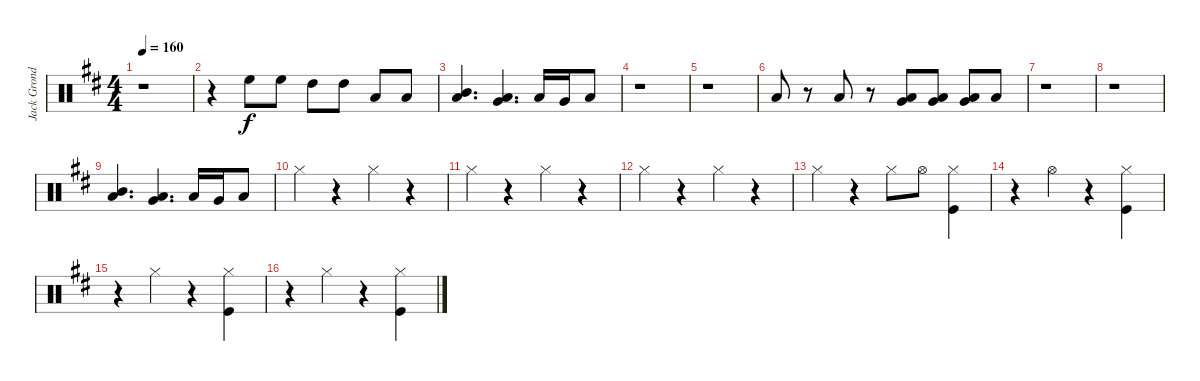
\track ("Jack Grondin Drums" "Jack Grond") {instrument percussion}
\staff {score}
\articulation defaults
\ts (4 4)
\tempo 160
\clef neutral
\ks d
r.1{dy f} |
r.4 "High Floor Tom (hit)".8 "High Floor Tom (hit)".8 "High Tom (hit)".8 "High Tom (hit)".8 "Low Tom (hit)".8 "Low Tom (hit)".8 |
("Mid Tom (hit)" "Low Tom (hit)").4{d} ("Low Tom (hit)" "Very Low Tom (hit)").4{d} "Low Tom (hit)".16 "Very Low Tom (hit)".16 "Low Floor Tom (hit)".8 |
r.1 |
r.1 |
"Low Tom (hit)".8 r.8 "Low Tom (hit)".8 r.8 ("Low Tom (hit)" "Very Low Tom (hit)").8 ("Low Tom (hit)" "Very Low Tom (hit)").8 ("Very Low Tom (hit)" "Low Floor Tom (hit)").8 "Low Floor Tom (hit)".8 |
r.1 |
r.1 |
("Mid Tom (hit)" "Low Tom (hit)").4{d} ("Low Tom (hit)" "Very Low Tom (hit)").4{d} "Low Tom (hit)".16 "Very Low Tom (hit)".16 "Low Floor Tom (hit)".8 |
"Hi-Hat (closed)".4 r.4 "Hi-Hat (closed)".4 r.4 |
"Hi-Hat (closed)".4 r.4 "Hi-Hat (closed)".4 r.4 |
"Hi-Hat (closed)".4 r.4 "Hi-Hat (closed)".4 r.4 |
"Hi-Hat (closed)".4 r.4 "Hi-Hat (closed)".8 "Hi-Hat (open)".8 ("Hi-Hat (closed)" "Kick (hit)").4 |
r.4 "Hi-Hat (open)".4 r.4 ("Hi-Hat (closed)" "Kick (hit)").4 |
r.4 "Hi-Hat (closed)".4 r.4 ("Hi-Hat (closed)" "Kick (hit)").4 |
r.4 "Hi-Hat (closed)".4 r.4 ("Hi-Hat (closed)" "Kick (hit)").4
